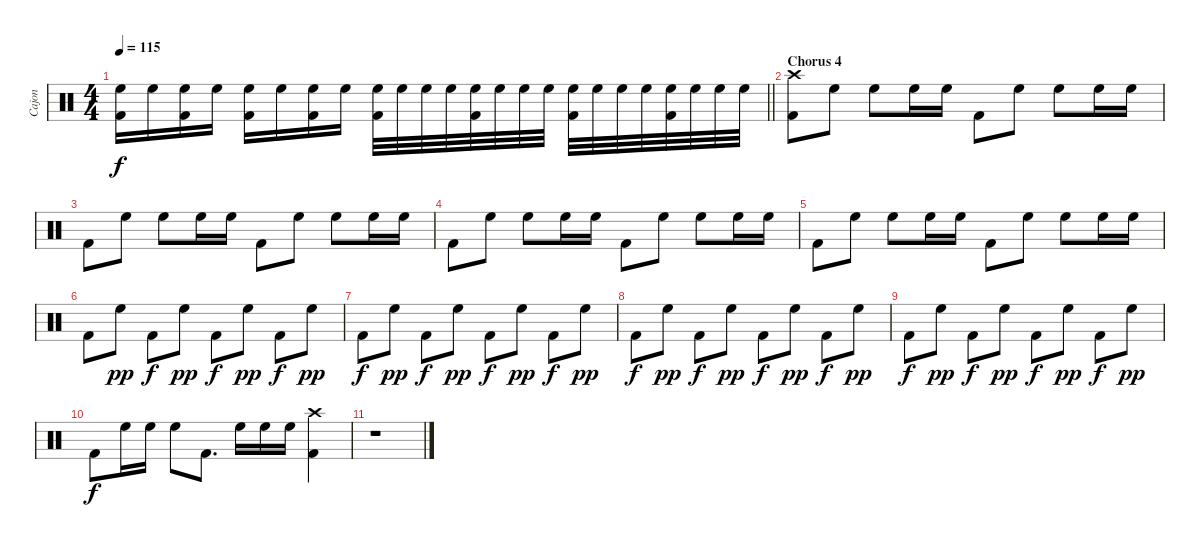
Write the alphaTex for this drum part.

\track ("Cajon" "Cajon") {instrument percussion}
\staff {score}
\articulation defaults
\ts (4 4)
\tempo 115
\clef neutral
\barLineRight lightlight
\ks c
("High Floor Tom (hit)" "Kick (hit) 2").16{dy f} "High Floor Tom (hit)".16 ("High Floor Tom (hit)" "Kick (hit) 2").16 "High Floor Tom (hit)".16 ("High Floor Tom (hit)" "Kick (hit) 2").16 "High Floor Tom (hit)".16 ("High Floor Tom (hit)" "Kick (hit) 2").16 "High Floor Tom (hit)".16 ("High Floor Tom (hit)" "Kick (hit) 2").32 "High Floor Tom (hit)".32 "High Floor Tom (hit)".32 "High Floor Tom (hit)".32 ("High Floor Tom (hit)" "Kick (hit) 2").32 "High Floor Tom (hit)".32 "High Floor Tom (hit)".32 "High Floor Tom (hit)".32 ("High Floor Tom (hit)" "Kick (hit) 2").32 "High Floor Tom (hit)".32 "High Floor Tom (hit)".32 "High Floor Tom (hit)".32 ("High Floor Tom (hit)" "Kick (hit) 2").32 "High Floor Tom (hit)".32 "High Floor Tom (hit)".32 "High Floor Tom (hit)".32 |
\section ("" "Chorus 4")
("Crash high (hit)" "Kick (hit) 2").8 "High Floor Tom (hit)".8 "High Floor Tom (hit)".8 "High Floor Tom (hit)".16 "High Floor Tom (hit)".16 "Kick (hit) 2".8 "High Floor Tom (hit)".8 "High Floor Tom (hit)".8 "High Floor Tom (hit)".16 "High Floor Tom (hit)".16 |
"Kick (hit) 2".8 "High Floor Tom (hit)".8 "High Floor Tom (hit)".8 "High Floor Tom (hit)".16 "High Floor Tom (hit)".16 "Kick (hit) 2".8 "High Floor Tom (hit)".8 "High Floor Tom (hit)".8 "High Floor Tom (hit)".16 "High Floor Tom (hit)".16 |
"Kick (hit) 2".8 "High Floor Tom (hit)".8 "High Floor Tom (hit)".8 "High Floor Tom (hit)".16 "High Floor Tom (hit)".16 "Kick (hit) 2".8 "High Floor Tom (hit)".8 "High Floor Tom (hit)".8 "High Floor Tom (hit)".16 "High Floor Tom (hit)".16 |
"Kick (hit) 2".8 "High Floor Tom (hit)".8 "High Floor Tom (hit)".8 "High Floor Tom (hit)".16 "High Floor Tom (hit)".16 "Kick (hit) 2".8 "High Floor Tom (hit)".8 "High Floor Tom (hit)".8 "High Floor Tom (hit)".16 "High Floor Tom (hit)".16 |
"Kick (hit) 2".8 "High Floor Tom (hit)".8{dy pp} "Kick (hit) 2".8{dy f} "High Floor Tom (hit)".8{dy pp} "Kick (hit) 2".8{dy f} "High Floor Tom (hit)".8{dy pp} "Kick (hit) 2".8{dy f} "High Floor Tom (hit)".8{dy pp} |
"Kick (hit) 2".8{dy f} "High Floor Tom (hit)".8{dy pp} "Kick (hit) 2".8{dy f} "High Floor Tom (hit)".8{dy pp} "Kick (hit) 2".8{dy f} "High Floor Tom (hit)".8{dy pp} "Kick (hit) 2".8{dy f} "High Floor Tom (hit)".8{dy pp} |
"Kick (hit) 2".8{dy f} "High Floor Tom (hit)".8{dy pp} "Kick (hit) 2".8{dy f} "High Floor Tom (hit)".8{dy pp} "Kick (hit) 2".8{dy f} "High Floor Tom (hit)".8{dy pp} "Kick (hit) 2".8{dy f} "High Floor Tom (hit)".8{dy pp} |
"Kick (hit) 2".8{dy f} "High Floor Tom (hit)".8{dy pp} "Kick (hit) 2".8{dy f} "High Floor Tom (hit)".8{dy pp} "Kick (hit) 2".8{dy f} "High Floor Tom (hit)".8{dy pp} "Kick (hit) 2".8{dy f} "High Floor Tom (hit)".8{dy pp} |
"Kick (hit) 2".8{dy f} "High Floor Tom (hit)".16 "High Floor Tom (hit)".16 "High Floor Tom (hit)".8 "Kick (hit) 2".8{d} "High Floor Tom (hit)".16 "High Floor Tom (hit)".16 "High Floor Tom (hit)".16 ("Crash high (hit)" "Kick (hit) 2").4 |
r.1
